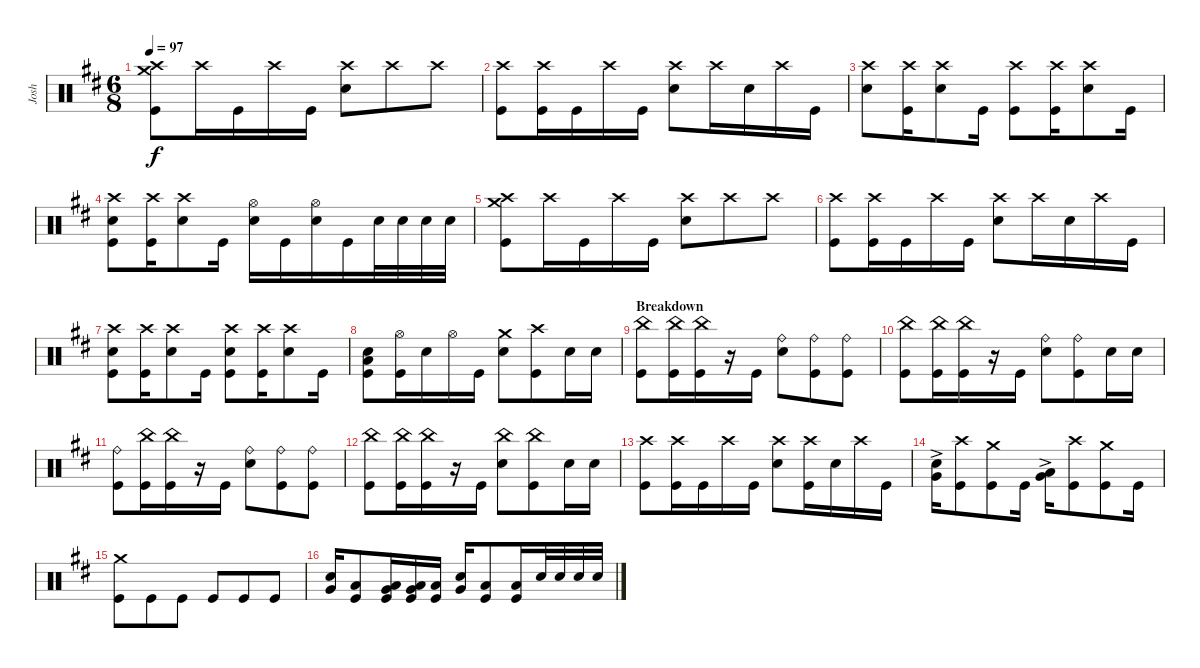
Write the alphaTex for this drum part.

\track ("Josh" "Josh") {instrument percussion}
\staff {score}
\articulation defaults
\ts (6 8)
\tempo 97
\clef neutral
\ks bminor
("Kick (hit)" "Crash high (hit)" "Crash medium (hit)").8{dy f} "Crash high (hit)".16 "Kick (hit)".16 "Crash high (hit)".16 "Kick (hit)".16 ("Snare (hit) 2" "Crash high (hit)").8 "Crash high (hit)".8 "Crash high (hit)".8 |
("Kick (hit)" "Crash high (hit)").8 ("Crash high (hit)" "Kick (hit)").16 "Kick (hit)".16 "Crash high (hit)".16 "Kick (hit)".16 ("Snare (hit) 2" "Crash high (hit)").8 "Crash high (hit)".16 "Snare (hit) 2".16 "Crash high (hit)".16 "Kick (hit)".16 |
("Crash high (hit)" "Snare (hit) 2").8 ("Kick (hit)" "Crash high (hit)").16 ("Crash high (hit)" "Snare (hit) 2").8 "Kick (hit)".16 ("Kick (hit)" "Crash high (hit)").8 ("Kick (hit)" "Crash high (hit)").16 ("Crash high (hit)" "Snare (hit) 2").8 "Kick (hit)".16 |
("Kick (hit)" "Crash high (hit)" "Snare (hit) 2").8 ("Kick (hit)" "Crash high (hit)").16 ("Crash high (hit)" "Snare (hit) 2").8 "Kick (hit)".16 ("Snare (hit) 2" "Hi-Hat (open)").16 "Kick (hit)".16 ("Snare (hit) 2" "Hi-Hat (open)").16 "Kick (hit)".16 "Snare (hit) 2".32 "Snare (hit) 2".32 "Snare (hit) 2".32 "Snare (hit) 2".32 |
("Kick (hit)" "Crash high (hit)" "Crash medium (hit)").8 "Crash high (hit)".16 "Kick (hit)".16 "Crash high (hit)".16 "Kick (hit)".16 ("Snare (hit) 2" "Crash high (hit)").8 "Crash high (hit)".8 "Crash high (hit)".8 |
("Kick (hit)" "Crash high (hit)").8 ("Crash high (hit)" "Kick (hit)").16 "Kick (hit)".16 "Crash high (hit)".16 "Kick (hit)".16 ("Snare (hit) 2" "Crash high (hit)").8 "Crash high (hit)".16 "Snare (hit) 2".16 "Crash high (hit)".16 "Kick (hit)".16 |
("Kick (hit)" "Crash high (hit)" "Snare (hit) 2").8 ("Kick (hit)" "Crash high (hit)").16 ("Crash high (hit)" "Snare (hit) 2").8 "Kick (hit)".16 ("Kick (hit)" "Crash high (hit)" "Snare (hit) 2").8 ("Kick (hit)" "Crash high (hit)").16 ("Crash high (hit)" "Snare (hit) 2").8 "Kick (hit)".16 |
("Kick (hit)" "Snare (hit) 2" "Low Floor Tom (hit)").8 ("Kick (hit)" "Hi-Hat (open)").16 "Snare (hit) 2".16 "Hi-Hat (open)".16 "Kick (hit)".16 ("Snare (hit) 2" "Crash medium (hit)").8 ("Kick (hit)" "Crash high (hit)").8 "Snare (hit) 2".16 "Snare (hit) 2".16 |
\section ("" "Breakdown")
("China (hit)" "Kick (hit)").8 ("China (hit)" "Kick (hit)").16 ("China (hit)" "Kick (hit)").16 r.16 "Kick (hit)".16 ("Snare (hit) 2" "Ride (bell)").8 ("Ride (bell)" "Kick (hit)").8 ("Ride (bell)" "Kick (hit)").8 |
("China (hit)" "Kick (hit)").8 ("China (hit)" "Kick (hit)").16 ("China (hit)" "Kick (hit)").16 r.16 "Kick (hit)".16 ("Snare (hit) 2" "Ride (bell)").8 ("Ride (bell)" "Kick (hit)").8 "Snare (hit) 2".16 "Snare (hit) 2".16 |
("Kick (hit)" "Ride (bell)").8 ("China (hit)" "Kick (hit)").16 ("China (hit)" "Kick (hit)").16 r.16 "Kick (hit)".16 ("Snare (hit) 2" "Ride (bell)").8 ("Ride (bell)" "Kick (hit)").8 ("Ride (bell)" "Kick (hit)").8 |
("China (hit)" "Kick (hit)").8 ("China (hit)" "Kick (hit)").16 ("China (hit)" "Kick (hit)").16 r.16 "Kick (hit)".16 ("Snare (hit) 2" "China (hit)").8 ("Kick (hit)" "China (hit)").8 "Snare (hit) 2".16 "Snare (hit) 2".16 |
("Kick (hit)" "Crash high (hit)").8 ("Kick (hit)" "Crash high (hit)").16 "Kick (hit)".16 "Crash high (hit)".16 "Kick (hit)".16 ("Snare (hit) 2" "Crash high (hit)").8 ("Kick (hit)" "Crash high (hit)").16 "Snare (hit) 2".16 "Crash high (hit)".16 "Kick (hit)".16 |
("Snare (hit) 2"{ac} "Very Low Tom (hit)"{ac}).16 ("Kick (hit)" "Crash high (hit)").8 ("Kick (hit)" "Crash medium (hit)").8 "Kick (hit)".16 ("Very Low Tom (hit)"{ac} "Low Floor Tom (hit)"{ac}).16 ("Kick (hit)" "Crash high (hit)").8 ("Kick (hit)" "Crash medium (hit)").8 "Kick (hit)".16 |
("Kick (hit)" "Crash medium (hit)").8 "Kick (hit)".8 "Kick (hit)".8 "Kick (hit)".8 "Kick (hit)".8 "Kick (hit)".8 |
("Snare (hit) 2" "Very Low Tom (hit)").16 ("Kick (hit)" "Low Floor Tom (hit)").8 ("Kick (hit)" "Low Tom (hit)" "Very Low Tom (hit)").16 ("Kick (hit)" "Very Low Tom (hit)" "Low Floor Tom (hit)").16 ("Kick (hit)" "Low Floor Tom (hit)").16 ("Snare (hit) 2" "Very Low Tom (hit)").16 ("Kick (hit)" "Low Floor Tom (hit)").8 ("Kick (hit)" "Low Floor Tom (hit)").16 "Snare (hit) 2".32 "Snare (hit) 2".32 "Snare (hit) 2".32 "Snare (hit) 2".32
